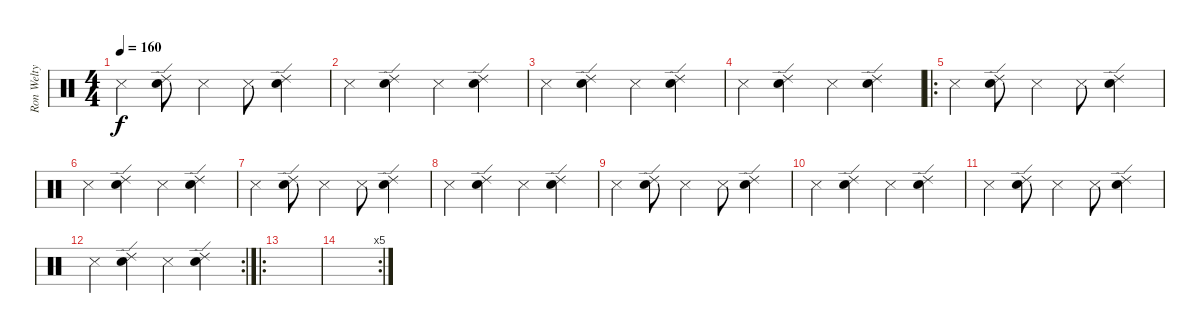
\track ("Ron Welty" "Ron Welty") {instrument percussion}
\staff {score}
\articulation defaults
\ts (4 4)
\tempo 160
\clef neutral
\ks c "Metronome (hit)".4{dy f}
("Ride (edge) 2" "Snare (hit) 2").8 "Metronome (hit)".4 "Metronome (hit)".8 ("Ride (edge) 2" "Snare (hit) 2").4 |
"Metronome (hit)".4 ("Ride (edge) 2" "Snare (hit) 2").4 "Metronome (hit)".4 ("Ride (edge) 2" "Snare (hit) 2").4 |
"Metronome (hit)".4 ("Ride (edge) 2" "Snare (hit) 2").4 "Metronome (hit)".4 ("Ride (edge) 2" "Snare (hit) 2").4 |
"Metronome (hit)".4 ("Ride (edge) 2" "Snare (hit) 2").4 "Metronome (hit)".4 ("Ride (edge) 2" "Snare (hit) 2").4 |
\ro "Metronome (hit)".4
("Ride (edge) 2" "Snare (hit) 2").8 "Metronome (hit)".4 "Metronome (hit)".8 ("Ride (edge) 2" "Snare (hit) 2").4 |
"Metronome (hit)".4 ("Ride (edge) 2" "Snare (hit) 2").4 "Metronome (hit)".4 ("Ride (edge) 2" "Snare (hit) 2").4 |
"Metronome (hit)".4 ("Ride (edge) 2" "Snare (hit) 2").8 "Metronome (hit)".4 "Metronome (hit)".8 ("Ride (edge) 2" "Snare (hit) 2").4 |
"Metronome (hit)".4 ("Ride (edge) 2" "Snare (hit) 2").4 "Metronome (hit)".4 ("Ride (edge) 2" "Snare (hit) 2").4 |
"Metronome (hit)".4 ("Ride (edge) 2" "Snare (hit) 2").8 "Metronome (hit)".4 "Metronome (hit)".8 ("Ride (edge) 2" "Snare (hit) 2").4 |
"Metronome (hit)".4 ("Ride (edge) 2" "Snare (hit) 2").4 "Metronome (hit)".4 ("Ride (edge) 2" "Snare (hit) 2").4 |
"Metronome (hit)".4 ("Ride (edge) 2" "Snare (hit) 2").8 "Metronome (hit)".4 "Metronome (hit)".8 ("Ride (edge) 2" "Snare (hit) 2").4 |
\rc 2 "Metronome (hit)".4
("Ride (edge) 2" "Snare (hit) 2").4 "Metronome (hit)".4 ("Ride (edge) 2" "Snare (hit) 2").4 |
\ro
|
\rc 5
